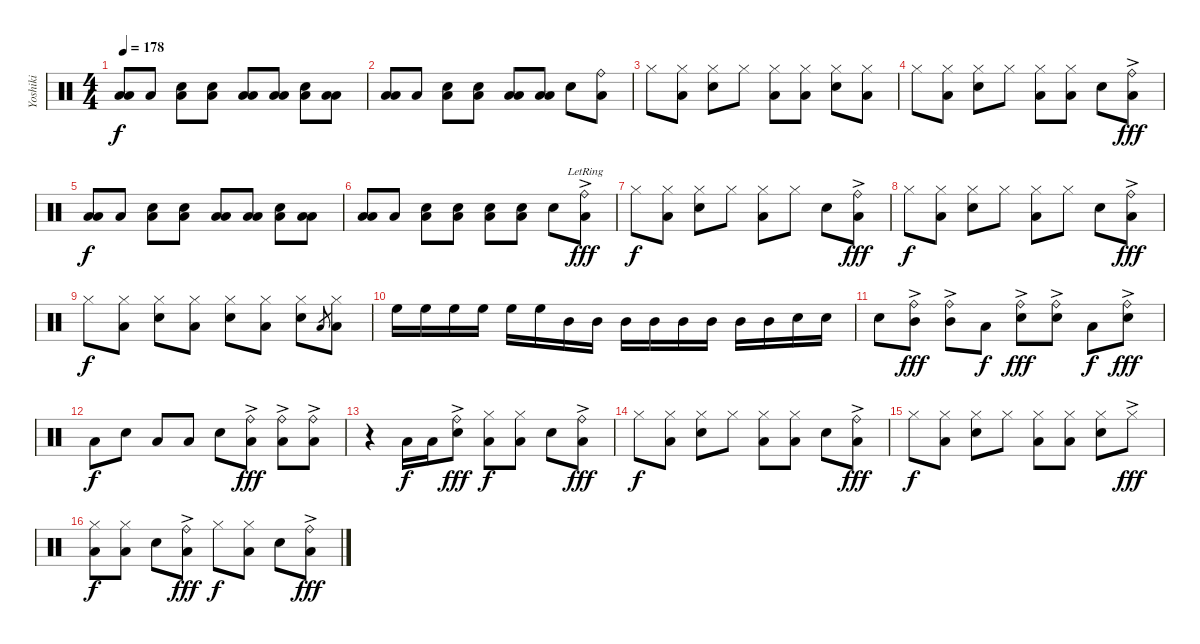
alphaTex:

\track ("Yoshiki" "Yoshiki") {instrument percussion}
\staff {score}
\articulation defaults
\ts (4 4)
\tempo 178
\clef neutral
\ks c
("Low Tom (hit)" "Low Floor Tom (hit)").8{dy f} "Low Tom (hit)".8 ("Low Tom (hit)" "Snare (hit) 2").8 ("Low Tom (hit)" "Snare (hit) 2").8 ("Low Tom (hit)" "Low Floor Tom (hit)").8 ("Low Tom (hit)" "Low Floor Tom (hit)").8 ("Low Tom (hit)" "Snare (hit) 2").8 ("Low Tom (hit)" "Low Floor Tom (hit)").8 |
("Low Tom (hit)" "Low Floor Tom (hit)").8 "Low Tom (hit)".8 ("Low Tom (hit)" "Snare (hit) 2").8 ("Low Tom (hit)" "Snare (hit) 2").8 ("Low Tom (hit)" "Low Floor Tom (hit)").8 ("Low Tom (hit)" "Low Floor Tom (hit)").8 "Snare (hit) 2".8 ("Ride (bell)" "Low Floor Tom (hit)").8 |
"Hi-Hat (closed)".8 ("Hi-Hat (closed)" "Low Floor Tom (hit)").8 ("Hi-Hat (closed)" "Snare (hit) 2").8 "Hi-Hat (closed)".8 ("Hi-Hat (closed)" "Low Floor Tom (hit)").8 ("Hi-Hat (closed)" "Low Floor Tom (hit)").8 ("Hi-Hat (closed)" "Snare (hit) 2").8 ("Hi-Hat (closed)" "Low Floor Tom (hit)").8 |
"Hi-Hat (closed)".8 ("Hi-Hat (closed)" "Low Floor Tom (hit)").8 ("Hi-Hat (closed)" "Snare (hit) 2").8 "Hi-Hat (closed)".8 ("Hi-Hat (closed)" "Low Floor Tom (hit)").8 ("Hi-Hat (closed)" "Low Floor Tom (hit)").8 "Snare (hit) 2".8 ("Ride (bell)"{ac} "Low Floor Tom (hit)").8{dy fff} |
("Low Tom (hit)" "Low Floor Tom (hit)").8{dy f} "Low Tom (hit)".8 ("Low Tom (hit)" "Snare (hit) 2").8 ("Low Tom (hit)" "Snare (hit) 2").8 ("Low Tom (hit)" "Low Floor Tom (hit)").8 ("Low Tom (hit)" "Low Floor Tom (hit)").8 ("Low Tom (hit)" "Snare (hit) 2").8 ("Low Tom (hit)" "Low Floor Tom (hit)").8 |
("Low Tom (hit)" "Low Floor Tom (hit)").8 "Low Tom (hit)".8 ("Low Tom (hit)" "Snare (hit) 2").8 ("Low Tom (hit)" "Snare (hit) 2").8 ("Snare (hit) 2" "Low Floor Tom (hit)").8 ("Snare (hit) 2" "Low Floor Tom (hit)").8 "Snare (hit) 2".8 ("Ride (bell)"{ac lr} "Low Floor Tom (hit)").8{dy fff} |
"Hi-Hat (closed)".8{dy f} ("Hi-Hat (closed)" "Low Floor Tom (hit)").8 ("Hi-Hat (closed)" "Snare (hit) 2").8 "Hi-Hat (closed)".8 ("Hi-Hat (closed)" "Low Floor Tom (hit)").8 "Hi-Hat (closed)".8 "Snare (hit) 2".8 ("Ride (bell)"{ac} "Low Floor Tom (hit)").8{dy fff} |
"Hi-Hat (closed)".8{dy f} ("Hi-Hat (closed)" "Low Floor Tom (hit)").8 ("Hi-Hat (closed)" "Snare (hit) 2").8 "Hi-Hat (closed)".8 ("Hi-Hat (closed)" "Low Floor Tom (hit)").8 "Hi-Hat (closed)".8 "Snare (hit) 2".8 ("Ride (bell)"{ac} "Low Floor Tom (hit)").8{dy fff} |
"Hi-Hat (closed)".8{dy f} ("Hi-Hat (closed)" "Low Floor Tom (hit)").8 ("Hi-Hat (closed)" "Snare (hit) 2").8 ("Hi-Hat (closed)" "Low Floor Tom (hit)").8 ("Hi-Hat (closed)" "Snare (hit) 2").8 ("Hi-Hat (closed)" "Low Floor Tom (hit)").8 ("Hi-Hat (closed)" "Snare (hit) 2").8 "Low Floor Tom (hit)".8{gr} ("Hi-Hat (closed)" "Low Floor Tom (hit)").8 |
"High Floor Tom (hit)".16 "High Floor Tom (hit)".16 "High Floor Tom (hit)".16 "High Floor Tom (hit)".16 "High Floor Tom (hit)".16 "High Floor Tom (hit)".16 "Mid Tom (hit)".16 "Mid Tom (hit)".16 "Mid Tom (hit)".16 "Mid Tom (hit)".16 "Mid Tom (hit)".16 "Mid Tom (hit)".16 "Mid Tom (hit)".16 "Mid Tom (hit)".16 "Snare (hit) 2".16 "Snare (hit) 2".16 |
"Snare (hit) 2".8 ("Ride (bell)"{ac} "Mid Tom (hit)").8{dy fff} ("Ride (bell)"{ac} "Mid Tom (hit)").8 "Low Floor Tom (hit)".8{dy f} ("Ride (bell)"{ac} "Snare (hit) 2").8{dy fff} ("Ride (bell)"{ac} "Snare (hit) 2").8 "Low Floor Tom (hit)".8{dy f} ("Ride (bell)"{ac} "Snare (hit) 2").8{dy fff} |
"Low Floor Tom (hit)".8{dy f} "Snare (hit) 2".8 "Low Floor Tom (hit)".8 "Low Floor Tom (hit)".8 "Snare (hit) 2".8 ("Ride (bell)"{ac} "Low Floor Tom (hit)").8{dy fff} ("Ride (bell)"{ac} "Low Floor Tom (hit)").8 ("Ride (bell)"{ac} "Low Floor Tom (hit)").8 |
r.4 "Low Floor Tom (hit)".16{dy f} "Low Floor Tom (hit)".16 ("Ride (bell)"{ac} "Snare (hit) 2").8{dy fff} ("Hi-Hat (closed)" "Low Floor Tom (hit)").8{dy f} ("Hi-Hat (closed)" "Low Floor Tom (hit)").8 "Snare (hit) 2".8 ("Ride (bell)"{ac} "Low Floor Tom (hit)").8{dy fff} |
"Hi-Hat (closed)".8{dy f} ("Hi-Hat (closed)" "Low Floor Tom (hit)").8 ("Hi-Hat (closed)" "Snare (hit) 2").8 "Hi-Hat (closed)".8 ("Hi-Hat (closed)" "Low Floor Tom (hit)").8 ("Hi-Hat (closed)" "Low Floor Tom (hit)").8 "Snare (hit) 2".8 ("Ride (bell)"{ac} "Low Floor Tom (hit)").8{dy fff} |
"Hi-Hat (closed)".8{dy f} ("Hi-Hat (closed)" "Low Floor Tom (hit)").8 ("Hi-Hat (closed)" "Snare (hit) 2").8 "Hi-Hat (closed)".8 ("Hi-Hat (closed)" "Low Floor Tom (hit)").8 ("Hi-Hat (closed)" "Low Floor Tom (hit)").8 ("Hi-Hat (closed)" "Snare (hit) 2").8 "Hi-Hat (closed)"{ac}.8{dy fff} |
("Hi-Hat (closed)" "Low Floor Tom (hit)").8{dy f} ("Hi-Hat (closed)" "Low Floor Tom (hit)").8 "Snare (hit) 2".8 ("Ride (bell)"{ac} "Low Floor Tom (hit)").8{dy fff} "Hi-Hat (closed)".8{dy f} ("Hi-Hat (closed)" "Low Floor Tom (hit)").8 "Snare (hit) 2".8 ("Ride (bell)"{ac} "Low Floor Tom (hit)").8{dy fff}
